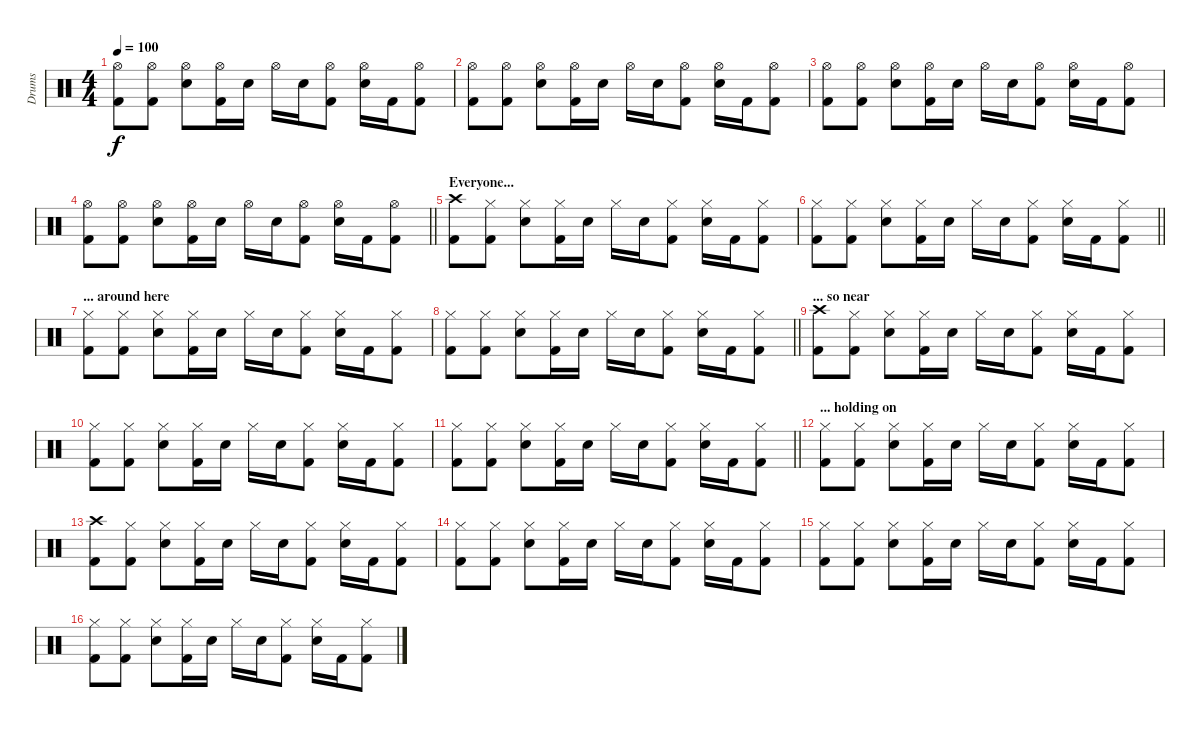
\track ("Drums" "Drums") {instrument percussion}
\staff {score}
\articulation defaults
\ts (4 4)
\tempo 100
\clef neutral
\ks c
("Hi-Hat (open)" "Kick (hit) 2").8{dy f} ("Hi-Hat (open)" "Kick (hit) 2").8 ("Hi-Hat (open)" "Snare (hit) 2").8 ("Hi-Hat (open)" "Kick (hit) 2").16 "Snare (hit) 2".16 "Hi-Hat (open)".16 "Snare (hit) 2".16 ("Hi-Hat (open)" "Kick (hit) 2").8 ("Hi-Hat (open)" "Snare (hit) 2").16 "Kick (hit) 2".16 ("Hi-Hat (open)" "Kick (hit) 2").8 |
("Hi-Hat (open)" "Kick (hit) 2").8 ("Hi-Hat (open)" "Kick (hit) 2").8 ("Hi-Hat (open)" "Snare (hit) 2").8 ("Hi-Hat (open)" "Kick (hit) 2").16 "Snare (hit) 2".16 "Hi-Hat (open)".16 "Snare (hit) 2".16 ("Hi-Hat (open)" "Kick (hit) 2").8 ("Hi-Hat (open)" "Snare (hit) 2").16 "Kick (hit) 2".16 ("Hi-Hat (open)" "Kick (hit) 2").8 |
("Hi-Hat (open)" "Kick (hit) 2").8 ("Hi-Hat (open)" "Kick (hit) 2").8 ("Hi-Hat (open)" "Snare (hit) 2").8 ("Hi-Hat (open)" "Kick (hit) 2").16 "Snare (hit) 2".16 "Hi-Hat (open)".16 "Snare (hit) 2".16 ("Hi-Hat (open)" "Kick (hit) 2").8 ("Hi-Hat (open)" "Snare (hit) 2").16 "Kick (hit) 2".16 ("Hi-Hat (open)" "Kick (hit) 2").8 |
\barLineRight lightlight
("Hi-Hat (open)" "Kick (hit) 2").8 ("Hi-Hat (open)" "Kick (hit) 2").8 ("Hi-Hat (open)" "Snare (hit) 2").8 ("Hi-Hat (open)" "Kick (hit) 2").16 "Snare (hit) 2".16 "Hi-Hat (open)".16 "Snare (hit) 2".16 ("Hi-Hat (open)" "Kick (hit) 2").8 ("Hi-Hat (open)" "Snare (hit) 2").16 "Kick (hit) 2".16 ("Hi-Hat (open)" "Kick (hit) 2").8 |
\section ("" "Everyone...")
("Crash high (hit)" "Kick (hit) 2").8 ("Hi-Hat (closed)" "Kick (hit) 2").8 ("Hi-Hat (closed)" "Snare (hit) 2").8 ("Hi-Hat (closed)" "Kick (hit) 2").16 "Snare (hit) 2".16 "Hi-Hat (closed)".16 "Snare (hit) 2".16 ("Hi-Hat (closed)" "Kick (hit) 2").8 ("Hi-Hat (closed)" "Snare (hit) 2").16 "Kick (hit) 2".16 ("Hi-Hat (closed)" "Kick (hit) 2").8 |
\barLineRight lightlight
("Hi-Hat (closed)" "Kick (hit) 2").8 ("Hi-Hat (closed)" "Kick (hit) 2").8 ("Hi-Hat (closed)" "Snare (hit) 2").8 ("Hi-Hat (closed)" "Kick (hit) 2").16 "Snare (hit) 2".16 "Hi-Hat (closed)".16 "Snare (hit) 2".16 ("Hi-Hat (closed)" "Kick (hit) 2").8 ("Hi-Hat (closed)" "Snare (hit) 2").16 "Kick (hit) 2".16 ("Hi-Hat (closed)" "Kick (hit) 2").8 |
\section ("" "... around here")
("Hi-Hat (closed)" "Kick (hit) 2").8 ("Hi-Hat (closed)" "Kick (hit) 2").8 ("Hi-Hat (closed)" "Snare (hit) 2").8 ("Hi-Hat (closed)" "Kick (hit) 2").16 "Snare (hit) 2".16 "Hi-Hat (closed)".16 "Snare (hit) 2".16 ("Hi-Hat (closed)" "Kick (hit) 2").8 ("Hi-Hat (closed)" "Snare (hit) 2").16 "Kick (hit) 2".16 ("Hi-Hat (closed)" "Kick (hit) 2").8 |
\barLineRight lightlight
("Hi-Hat (closed)" "Kick (hit) 2").8 ("Hi-Hat (closed)" "Kick (hit) 2").8 ("Hi-Hat (closed)" "Snare (hit) 2").8 ("Hi-Hat (closed)" "Kick (hit) 2").16 "Snare (hit) 2".16 "Hi-Hat (closed)".16 "Snare (hit) 2".16 ("Hi-Hat (closed)" "Kick (hit) 2").8 ("Hi-Hat (closed)" "Snare (hit) 2").16 "Kick (hit) 2".16 ("Hi-Hat (closed)" "Kick (hit) 2").8 |
\section ("" "... so near")
("Crash high (hit)" "Kick (hit) 2").8 ("Hi-Hat (closed)" "Kick (hit) 2").8 ("Hi-Hat (closed)" "Snare (hit) 2").8 ("Hi-Hat (closed)" "Kick (hit) 2").16 "Snare (hit) 2".16 "Hi-Hat (closed)".16 "Snare (hit) 2".16 ("Hi-Hat (closed)" "Kick (hit) 2").8 ("Hi-Hat (closed)" "Snare (hit) 2").16 "Kick (hit) 2".16 ("Hi-Hat (closed)" "Kick (hit) 2").8 |
("Hi-Hat (closed)" "Kick (hit) 2").8 ("Hi-Hat (closed)" "Kick (hit) 2").8 ("Hi-Hat (closed)" "Snare (hit) 2").8 ("Hi-Hat (closed)" "Kick (hit) 2").16 "Snare (hit) 2".16 "Hi-Hat (closed)".16 "Snare (hit) 2".16 ("Hi-Hat (closed)" "Kick (hit) 2").8 ("Hi-Hat (closed)" "Snare (hit) 2").16 "Kick (hit) 2".16 ("Hi-Hat (closed)" "Kick (hit) 2").8 |
\barLineRight lightlight
("Hi-Hat (closed)" "Kick (hit) 2").8 ("Hi-Hat (closed)" "Kick (hit) 2").8 ("Hi-Hat (closed)" "Snare (hit) 2").8 ("Hi-Hat (closed)" "Kick (hit) 2").16 "Snare (hit) 2".16 "Hi-Hat (closed)".16 "Snare (hit) 2".16 ("Hi-Hat (closed)" "Kick (hit) 2").8 ("Hi-Hat (closed)" "Snare (hit) 2").16 "Kick (hit) 2".16 ("Hi-Hat (closed)" "Kick (hit) 2").8 |
\section ("" "... holding on")
("Hi-Hat (closed)" "Kick (hit) 2").8 ("Hi-Hat (closed)" "Kick (hit) 2").8 ("Hi-Hat (closed)" "Snare (hit) 2").8 ("Hi-Hat (closed)" "Kick (hit) 2").16 "Snare (hit) 2".16 "Hi-Hat (closed)".16 "Snare (hit) 2".16 ("Hi-Hat (closed)" "Kick (hit) 2").8 ("Hi-Hat (closed)" "Snare (hit) 2").16 "Kick (hit) 2".16 ("Hi-Hat (closed)" "Kick (hit) 2").8 |
("Crash high (hit)" "Kick (hit) 2").8 ("Hi-Hat (closed)" "Kick (hit) 2").8 ("Hi-Hat (closed)" "Snare (hit) 2").8 ("Hi-Hat (closed)" "Kick (hit) 2").16 "Snare (hit) 2".16 "Hi-Hat (closed)".16 "Snare (hit) 2".16 ("Hi-Hat (closed)" "Kick (hit) 2").8 ("Hi-Hat (closed)" "Snare (hit) 2").16 "Kick (hit) 2".16 ("Hi-Hat (closed)" "Kick (hit) 2").8 |
("Hi-Hat (closed)" "Kick (hit) 2").8 ("Hi-Hat (closed)" "Kick (hit) 2").8 ("Hi-Hat (closed)" "Snare (hit) 2").8 ("Hi-Hat (closed)" "Kick (hit) 2").16 "Snare (hit) 2".16 "Hi-Hat (closed)".16 "Snare (hit) 2".16 ("Hi-Hat (closed)" "Kick (hit) 2").8 ("Hi-Hat (closed)" "Snare (hit) 2").16 "Kick (hit) 2".16 ("Hi-Hat (closed)" "Kick (hit) 2").8 |
("Hi-Hat (closed)" "Kick (hit) 2").8 ("Hi-Hat (closed)" "Kick (hit) 2").8 ("Hi-Hat (closed)" "Snare (hit) 2").8 ("Hi-Hat (closed)" "Kick (hit) 2").16 "Snare (hit) 2".16 "Hi-Hat (closed)".16 "Snare (hit) 2".16 ("Hi-Hat (closed)" "Kick (hit) 2").8 ("Hi-Hat (closed)" "Snare (hit) 2").16 "Kick (hit) 2".16 ("Hi-Hat (closed)" "Kick (hit) 2").8 |
("Hi-Hat (closed)" "Kick (hit) 2").8 ("Hi-Hat (closed)" "Kick (hit) 2").8 ("Hi-Hat (closed)" "Snare (hit) 2").8 ("Hi-Hat (closed)" "Kick (hit) 2").16 "Snare (hit) 2".16 "Hi-Hat (closed)".16 "Snare (hit) 2".16 ("Hi-Hat (closed)" "Kick (hit) 2").8 ("Hi-Hat (closed)" "Snare (hit) 2").16 "Kick (hit) 2".16 ("Hi-Hat (closed)" "Kick (hit) 2").8
